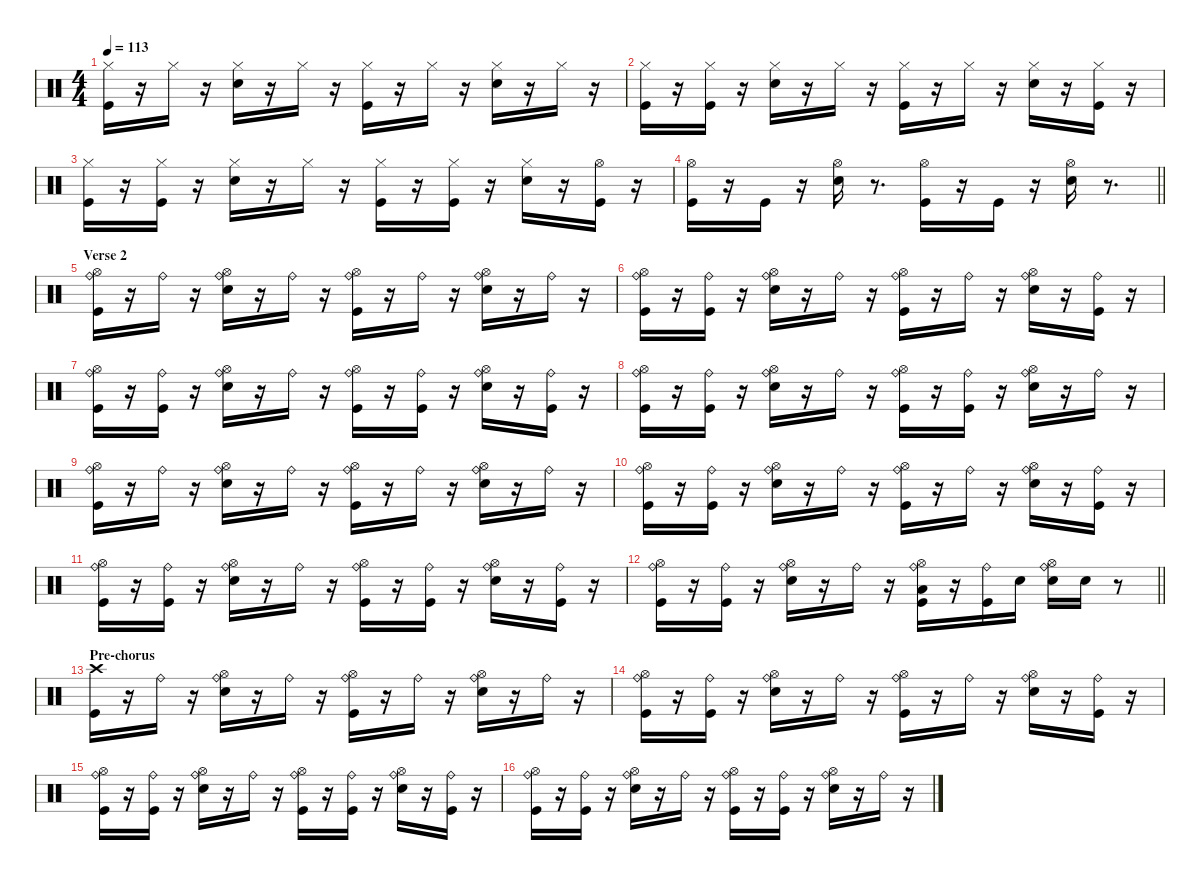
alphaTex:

\defaultSystemsLayout 4
\hideDynamics
\bracketExtendMode nobrackets
\singleTrackTrackNamePolicy hidden
\multiTrackTrackNamePolicy hidden
\firstSystemTrackNameMode fullname
\firstSystemTrackNameOrientation horizontal
\otherSystemsTrackNameOrientation horizontal
\track ("Drums" "drm.") {instrument percussion}
\staff {score}
\articulation defaults
\ts (4 4)
\tempo 113
\clef neutral
\ks c
("Kick (hit)" "Hi-Hat (closed)").16{dy fff beam Down} r.16{beam Down} "Hi-Hat (closed)".16{dy mf beam Down} r.16{beam Down} ("Snare (hit) 2" "Hi-Hat (closed)").16{dy fff beam Down} r.16{beam Down} "Hi-Hat (closed)".16{dy mf beam Down} r.16{beam Down} ("Kick (hit)" "Hi-Hat (closed)").16{dy fff beam Down} r.16{beam Down} "Hi-Hat (closed)".16{dy mf beam Down} r.16{beam Down} ("Snare (hit) 2" "Hi-Hat (closed)").16{dy fff beam Down} r.16{beam Down} "Hi-Hat (closed)".16{dy mf beam Down} r.16{beam Down} |
("Kick (hit)" "Hi-Hat (closed)").16{dy fff beam Down} r.16{beam Down} ("Kick (hit)" "Hi-Hat (closed)").16{dy ff beam Down} r.16{beam Down} ("Snare (hit) 2" "Hi-Hat (closed)").16{dy fff beam Down} r.16{beam Down} "Hi-Hat (closed)".16{dy mf beam Down} r.16{beam Down} ("Kick (hit)" "Hi-Hat (closed)").16{dy fff beam Down} r.16{beam Down} "Hi-Hat (closed)".16{dy mf beam Down} r.16{beam Down} ("Snare (hit) 2" "Hi-Hat (closed)").16{dy fff beam Down} r.16{beam Down} ("Kick (hit)" "Hi-Hat (closed)").16{dy ff beam Down} r.16{beam Down} |
("Kick (hit)" "Hi-Hat (closed)").16{dy fff beam Down} r.16{beam Down} ("Kick (hit)" "Hi-Hat (closed)").16{dy f beam Down} r.16{beam Down} ("Snare (hit) 2" "Hi-Hat (closed)").16{dy fff beam Down} r.16{beam Down} "Hi-Hat (closed)".16{dy mf beam Down} r.16{beam Down} ("Kick (hit)" "Hi-Hat (closed)").16{dy fff beam Down} r.16{beam Down} ("Kick (hit)" "Hi-Hat (closed)").16{dy ff beam Down} r.16{beam Down} ("Snare (hit) 2" "Hi-Hat (closed)").16{dy fff beam Down} r.16{beam Down} ("Kick (hit)" "Hi-Hat (open)").16{dy f beam Down} r.16{beam Down} |
\barLineRight lightlight
("Kick (hit)" "Hi-Hat (open)").16{dy fff beam Down} r.16{beam Down} "Kick (hit)".16{dy ff beam Down} r.16{beam Down} ("Snare (hit) 2" "Hi-Hat (open)").16{dy fff beam Down} r.8{d beam Down} ("Kick (hit)" "Hi-Hat (open)").16{beam Down} r.16{beam Down} "Kick (hit)".16{dy ff beam Down} r.16{beam Down} ("Snare (hit) 2" "Hi-Hat (open)").16{dy fff beam Down} r.8{d beam Down} |
\section ("" "Verse 2")
("Kick (hit)" "Hi-Hat (open)" "Ride (bell)").16{beam Down} r.16{beam Down} "Ride (bell)".16{dy p beam Down} r.16{beam Down} ("Snare (hit) 2" "Hi-Hat (open)" "Ride (bell)").16{dy fff beam Down} r.16{beam Down} "Ride (bell)".16{dy mp beam Down} r.16{beam Down} ("Kick (hit)" "Hi-Hat (open)" "Ride (bell)").16{dy fff beam Down} r.16{beam Down} "Ride (bell)".16{dy mp beam Down} r.16{beam Down} ("Snare (hit) 2" "Hi-Hat (open)" "Ride (bell)").16{dy fff beam Down} r.16{beam Down} "Ride (bell)".16{dy mp beam Down} r.16{beam Down} |
("Kick (hit)" "Hi-Hat (open)" "Ride (bell)").16{dy fff beam Down} r.16{beam Down} ("Kick (hit)" "Ride (bell)").16{dy ff beam Down} r.16{beam Down} ("Snare (hit) 2" "Hi-Hat (open)" "Ride (bell)").16{dy fff beam Down} r.16{beam Down} "Ride (bell)".16{dy mp beam Down} r.16{beam Down} ("Kick (hit)" "Hi-Hat (open)" "Ride (bell)").16{dy fff beam Down} r.16{beam Down} "Ride (bell)".16{dy mp beam Down} r.16{beam Down} ("Snare (hit) 2" "Hi-Hat (open)" "Ride (bell)").16{dy fff beam Down} r.16{beam Down} ("Kick (hit)" "Ride (bell)").16{dy ff beam Down} r.16{beam Down} |
("Kick (hit)" "Hi-Hat (open)" "Ride (bell)").16{dy fff beam Down} r.16{beam Down} ("Kick (hit)" "Ride (bell)").16{dy f beam Down} r.16{beam Down} ("Snare (hit) 2" "Hi-Hat (open)" "Ride (bell)").16{dy fff beam Down} r.16{beam Down} "Ride (bell)".16{dy mp beam Down} r.16{beam Down} ("Kick (hit)" "Hi-Hat (open)" "Ride (bell)").16{dy fff beam Down} r.16{beam Down} ("Kick (hit)" "Ride (bell)").16{dy ff beam Down} r.16{beam Down} ("Snare (hit) 2" "Hi-Hat (open)" "Ride (bell)").16{dy fff beam Down} r.16{beam Down} ("Kick (hit)" "Ride (bell)").16{dy f beam Down} r.16{beam Down} |
("Kick (hit)" "Hi-Hat (open)" "Ride (bell)").16{dy fff beam Down} r.16{beam Down} ("Kick (hit)" "Ride (bell)").16{dy ff beam Down} r.16{beam Down} ("Snare (hit) 2" "Hi-Hat (open)" "Ride (bell)").16{dy fff beam Down} r.16{beam Down} "Ride (bell)".16{dy p beam Down} r.16{beam Down} ("Kick (hit)" "Hi-Hat (open)" "Ride (bell)").16{dy fff beam Down} r.16{beam Down} ("Kick (hit)" "Ride (bell)").16{dy ff beam Down} r.16{beam Down} ("Snare (hit) 2" "Hi-Hat (open)" "Ride (bell)").16{dy fff beam Down} r.16{beam Down} "Ride (bell)".16{dy p beam Down} r.16{beam Down} |
("Kick (hit)" "Hi-Hat (open)" "Ride (bell)").16{dy fff beam Down} r.16{beam Down} "Ride (bell)".16{dy mp beam Down} r.16{beam Down} ("Snare (hit) 2" "Hi-Hat (open)" "Ride (bell)").16{dy fff beam Down} r.16{beam Down} "Ride (bell)".16{dy mp beam Down} r.16{beam Down} ("Kick (hit)" "Hi-Hat (open)" "Ride (bell)").16{dy fff beam Down} r.16{beam Down} "Ride (bell)".16{dy mp beam Down} r.16{beam Down} ("Snare (hit) 2" "Hi-Hat (open)" "Ride (bell)").16{dy fff beam Down} r.16{beam Down} "Ride (bell)".16{dy mp beam Down} r.16{beam Down} |
("Kick (hit)" "Hi-Hat (open)" "Ride (bell)").16{dy fff beam Down} r.16{beam Down} ("Kick (hit)" "Ride (bell)").16{dy ff beam Down} r.16{beam Down} ("Snare (hit) 2" "Hi-Hat (open)" "Ride (bell)").16{dy fff beam Down} r.16{beam Down} "Ride (bell)".16{dy mp beam Down} r.16{beam Down} ("Kick (hit)" "Hi-Hat (open)" "Ride (bell)").16{dy fff beam Down} r.16{beam Down} "Ride (bell)".16{dy mp beam Down} r.16{beam Down} ("Snare (hit) 2" "Hi-Hat (open)" "Ride (bell)").16{dy fff beam Down} r.16{beam Down} ("Kick (hit)" "Ride (bell)").16{dy ff beam Down} r.16{beam Down} |
("Kick (hit)" "Hi-Hat (open)" "Ride (bell)").16{dy fff beam Down} r.16{beam Down} ("Kick (hit)" "Ride (bell)").16{dy f beam Down} r.16{beam Down} ("Snare (hit) 2" "Hi-Hat (open)" "Ride (bell)").16{dy fff beam Down} r.16{beam Down} "Ride (bell)".16{dy mp beam Down} r.16{beam Down} ("Kick (hit)" "Hi-Hat (open)" "Ride (bell)").16{dy fff beam Down} r.16{beam Down} ("Kick (hit)" "Ride (bell)").16{dy ff beam Down} r.16{beam Down} ("Snare (hit) 2" "Hi-Hat (open)" "Ride (bell)").16{dy fff beam Down} r.16{beam Down} ("Kick (hit)" "Ride (bell)").16{dy f beam Down} r.16{beam Down} |
\barLineRight lightlight
("Kick (hit)" "Hi-Hat (open)" "Ride (bell)").16{dy fff beam Down} r.16{beam Down} ("Kick (hit)" "Ride (bell)").16{dy ff beam Down} r.16{beam Down} ("Snare (hit) 2" "Hi-Hat (open)" "Ride (bell)").16{dy fff beam Down} r.16{beam Down} "Ride (bell)".16{dy p beam Down} r.16{beam Down} ("Kick (hit)" "Low Tom (hit)" "Hi-Hat (open)" "Ride (bell)").16{dy fff beam Down} r.16{beam Down} ("Kick (hit)" "Ride (bell)").16{dy ff beam Down} "Snare (hit) 2".16{dy f beam Down} ("Snare (hit) 2" "Hi-Hat (open)" "Ride (bell)").16{dy ff beam Down} "Snare (hit) 2".16{beam Down} r.8{beam Down} |
\section ("" "Pre-chorus")
("Kick (hit)" "Crash high (hit)").16{dy fff beam Down} r.16{beam Down} "Ride (bell)".16{dy p beam Down} r.16{beam Down} ("Snare (hit) 2" "Hi-Hat (open)" "Ride (bell)").16{dy fff beam Down} r.16{beam Down} "Ride (bell)".16{dy pp beam Down} r.16{beam Down} ("Kick (hit)" "Hi-Hat (open)" "Ride (bell)").16{dy fff beam Down} r.16{beam Down} "Ride (bell)".16{dy p beam Down} r.16{beam Down} ("Snare (hit) 2" "Hi-Hat (open)" "Ride (bell)").16{dy fff beam Down} r.16{beam Down} "Ride (bell)".16{dy p beam Down} r.16{beam Down} |
("Kick (hit)" "Hi-Hat (open)" "Ride (bell)").16{dy fff beam Down} r.16{beam Down} ("Kick (hit)" "Ride (bell)").16{dy ff beam Down} r.16{beam Down} ("Snare (hit) 2" "Hi-Hat (open)" "Ride (bell)").16{dy fff beam Down} r.16{beam Down} "Ride (bell)".16{dy p beam Down} r.16{beam Down} ("Kick (hit)" "Hi-Hat (open)" "Ride (bell)").16{dy fff beam Down} r.16{beam Down} "Ride (bell)".16{dy pp beam Down} r.16{beam Down} ("Snare (hit) 2" "Hi-Hat (open)" "Ride (bell)").16{dy fff beam Down} r.16{beam Down} ("Kick (hit)" "Ride (bell)").16{dy ff beam Down} r.16{beam Down} |
("Kick (hit)" "Hi-Hat (open)" "Ride (bell)").16{dy fff beam Down} r.16{beam Down} ("Kick (hit)" "Ride (bell)").16{dy f beam Down} r.16{beam Down} ("Snare (hit) 2" "Hi-Hat (open)" "Ride (bell)").16{dy fff beam Down} r.16{beam Down} "Ride (bell)".16{dy pp beam Down} r.16{beam Down} ("Kick (hit)" "Hi-Hat (open)" "Ride (bell)").16{dy fff beam Down} r.16{beam Down} ("Kick (hit)" "Ride (bell)").16{dy ff beam Down} r.16{beam Down} ("Snare (hit) 2" "Hi-Hat (open)" "Ride (bell)").16{dy fff beam Down} r.16{beam Down} ("Kick (hit)" "Ride (bell)").16{dy f beam Down} r.16{beam Down} |
("Kick (hit)" "Hi-Hat (open)" "Ride (bell)").16{dy fff beam Down} r.16{beam Down} ("Kick (hit)" "Ride (bell)").16{dy ff beam Down} r.16{beam Down} ("Snare (hit) 2" "Hi-Hat (open)" "Ride (bell)").16{dy fff beam Down} r.16{beam Down} "Ride (bell)".16{dy ppp beam Down} r.16{beam Down} ("Kick (hit)" "Hi-Hat (open)" "Ride (bell)").16{dy fff beam Down} r.16{beam Down} ("Kick (hit)" "Ride (bell)").16{dy ff beam Down} r.16{beam Down} ("Snare (hit) 2" "Hi-Hat (open)" "Ride (bell)").16{dy fff beam Down} r.16{beam Down} "Ride (bell)".16{dy ppp beam Down} r.16{beam Down}
